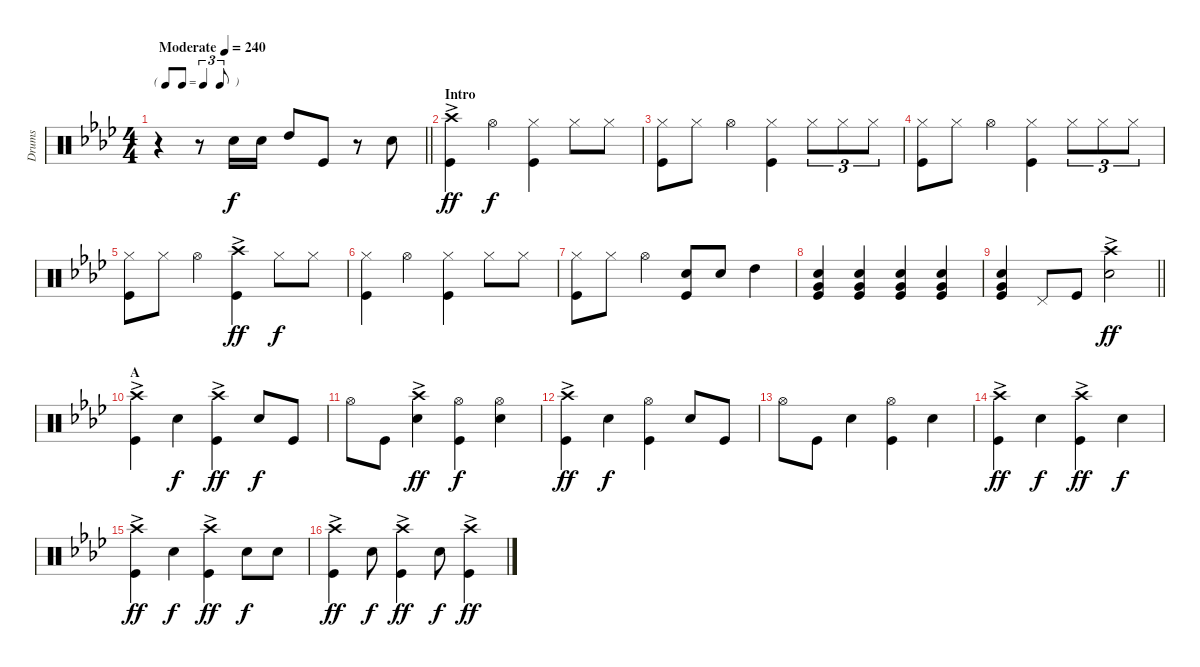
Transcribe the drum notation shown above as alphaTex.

\track ("Drums" "Drums") {instrument percussion}
\staff {score}
\articulation defaults
\ts (4 4)
\tf triplet8th
\tempo (240 "Moderate")
\clef neutral
\barLineRight lightlight
\ks ab
r.4{dy f} r.8 "Snare (hit) 2".16 "Snare (hit) 2".16 "High Tom (hit)".8 "Kick (hit)".8 r.8 "Snare (hit) 2".8 |
\section ("" "Intro")
("Crash high (hit)"{ac} "Kick (hit)").4{dy ff} "Hi-Hat (open)".4{dy f} ("Kick (hit)" "Hi-Hat (closed)").4 "Hi-Hat (closed)".8 "Hi-Hat (closed)".8 |
("Kick (hit)" "Hi-Hat (closed)").8 "Hi-Hat (closed)".8 "Hi-Hat (open)".4 ("Hi-Hat (closed)" "Kick (hit)").4 "Hi-Hat (closed)".8{tu (3 2)} "Hi-Hat (closed)".8{tu (3 2)} "Hi-Hat (closed)".8{tu (3 2)} |
("Hi-Hat (closed)" "Kick (hit)").8 "Hi-Hat (closed)".8 "Hi-Hat (open)".4 ("Hi-Hat (closed)" "Kick (hit)").4 "Hi-Hat (closed)".8{tu (3 2)} "Hi-Hat (closed)".8{tu (3 2)} "Hi-Hat (closed)".8{tu (3 2)} |
("Kick (hit)" "Hi-Hat (closed)").8 "Hi-Hat (closed)".8 "Hi-Hat (open)".4 ("Crash high (hit)"{ac} "Kick (hit)").4{dy ff} "Hi-Hat (closed)".8{dy f} "Hi-Hat (closed)".8 |
("Hi-Hat (closed)" "Kick (hit)").4 "Hi-Hat (open)".4 ("Hi-Hat (closed)" "Kick (hit)").4 "Hi-Hat (closed)".8 "Hi-Hat (closed)".8 |
("Hi-Hat (closed)" "Kick (hit)").8 "Hi-Hat (closed)".8 "Hi-Hat (open)".4 ("Kick (hit)" "Snare (hit) 2").8 "Snare (hit) 2".8 "High Tom (hit)".4 |
("Kick (hit)" "Very Low Tom (hit)" "Snare (hit) 2").4{bd 120} ("Kick (hit)" "Very Low Tom (hit)" "Snare (hit) 2").4{bd 240} ("Kick (hit)" "Very Low Tom (hit)" "Snare (hit) 2").4{bd 240} ("Kick (hit)" "Very Low Tom (hit)" "Snare (hit) 2").4{bd 240} |
\barLineRight lightlight
("Kick (hit)" "Very Low Tom (hit)" "Snare (hit) 2").4 "Pedal Hi-Hat (hit)".8 "Kick (hit)".8 ("Snare (hit) 2" "Crash high (hit)"{ac}).2{dy ff} |
\section ("" "A")
("Crash high (hit)"{ac} "Kick (hit)").4 "Snare (hit) 2".4{dy f} ("Crash high (hit)"{ac} "Kick (hit)").4{dy ff} "Snare (hit) 2".8{dy f} "Kick (hit)".8 |
"Hi-Hat (open)".8 "Kick (hit)".8 ("Crash high (hit)"{ac} "Snare (hit) 2").4{dy ff} ("Kick (hit)" "Hi-Hat (open)").4{dy f} ("Hi-Hat (open)" "Snare (hit) 2").4 |
("Crash high (hit)"{ac} "Kick (hit)").4{dy ff} "Snare (hit) 2".4{dy f} ("Hi-Hat (open)" "Kick (hit)").4 "Snare (hit) 2".8 "Kick (hit)".8 |
"Hi-Hat (open)".8 "Kick (hit)".8 "Snare (hit) 2".4 ("Hi-Hat (open)" "Kick (hit)").4 "Snare (hit) 2".4 |
("Crash high (hit)"{ac} "Kick (hit)").4{dy ff} "Snare (hit) 2".4{dy f} ("Crash high (hit)"{ac} "Kick (hit)").4{dy ff} "Snare (hit) 2".4{dy f} |
("Crash high (hit)"{ac} "Kick (hit)").4{dy ff} "Snare (hit) 2".4{dy f} ("Crash high (hit)"{ac} "Kick (hit)").4{dy ff} "Snare (hit) 2".8{dy f} "Snare (hit) 2".8 |
("Crash high (hit)"{ac} "Kick (hit)").4{dy ff} "Snare (hit) 2".8{dy f} ("Kick (hit)" "Crash high (hit)"{ac}).4{dy ff} "Snare (hit) 2".8{dy f} ("Kick (hit)" "Crash high (hit)"{ac}).4{dy ff}
